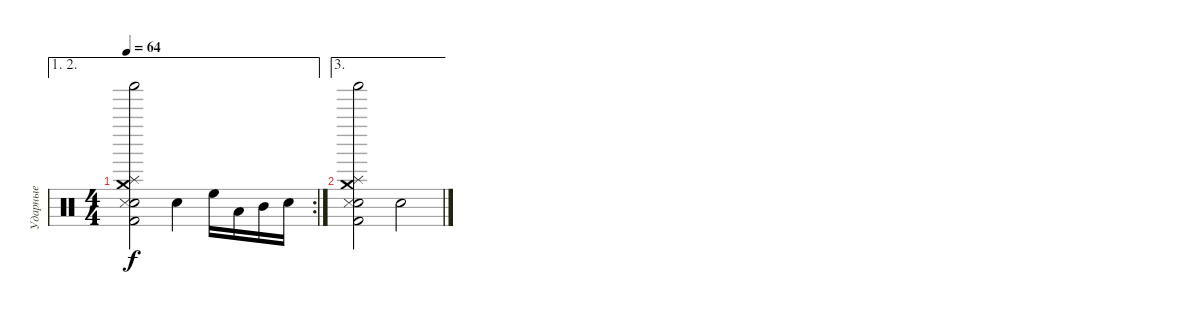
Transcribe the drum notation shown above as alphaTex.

\track ("Ударные" "Ударные") {instrument percussion}
\staff {score}
\articulation defaults
\ae (1 2)
\rc 2
\ts (4 4)
\tempo 64
\clef neutral
\ks c
("Snare (hit) 2" "Splash (hit)" "Kick (hit) 2" "Shaker (hit)" "Snare (side stick) 3" "Crash medium (hit)").2{dy f} "Snare (hit) 2".4 "High Floor Tom (hit)".16 "Low Tom (hit)".16 "Mid Tom (hit)".16 "Snare (hit) 2".16 |
\ae 3
("Snare (hit) 2" "Splash (hit)" "Kick (hit) 2" "Shaker (hit)" "Snare (side stick) 3" "Crash medium (hit)").2 "Snare (hit) 2".2
